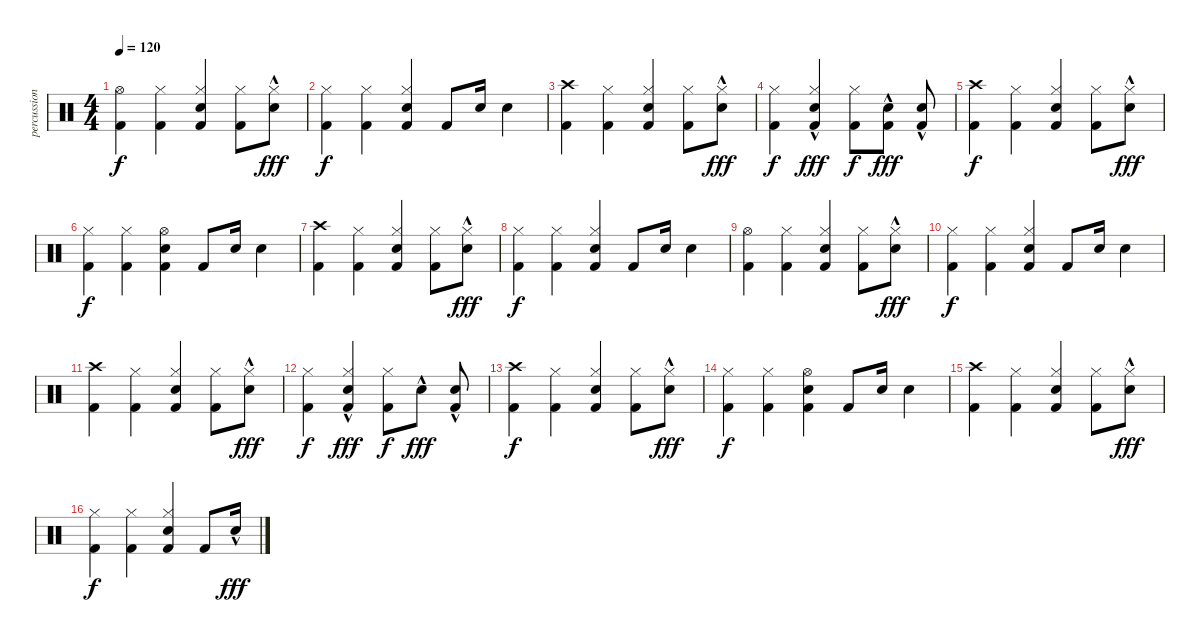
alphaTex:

\track ("percussion" "percussion") {instrument percussion}
\staff {score}
\articulation defaults
\ts (4 4)
\tempo 120
\clef neutral
\ks c
("Hi-Hat (open)" "Kick (hit) 2").4{dy f} ("Hi-Hat (closed)" "Kick (hit) 2").4 ("Hi-Hat (closed)" "Electric Snare (hit)" "Kick (hit) 2").4 ("Hi-Hat (closed)" "Kick (hit) 2").8 ("Hi-Hat (closed)" "Electric Snare (hit)"{hac}).8{dy fff} |
("Hi-Hat (closed)" "Kick (hit) 2").4{dy f} ("Hi-Hat (closed)" "Kick (hit) 2").4 ("Hi-Hat (closed)" "Electric Snare (hit)" "Kick (hit) 2").4 "Kick (hit) 2".8 "Electric Snare (hit)".16 "Electric Snare (hit)".4 |
("Crash high (hit)" "Kick (hit) 2").4 ("Hi-Hat (closed)" "Kick (hit) 2").4 ("Hi-Hat (closed)" "Electric Snare (hit)" "Kick (hit) 2").4 ("Hi-Hat (closed)" "Kick (hit) 2").8 ("Hi-Hat (closed)" "Electric Snare (hit)"{hac}).8{dy fff} |
("Hi-Hat (closed)" "Kick (hit) 2").4{dy f} ("Hi-Hat (closed)" "Electric Snare (hit)"{hac} "Kick (hit) 2").4{dy fff} ("Hi-Hat (closed)" "Kick (hit) 2").8{dy f} ("Electric Snare (hit)"{hac} "Kick (hit) 2").8{dy fff} ("Electric Snare (hit)"{hac} "Kick (hit) 2").8 |
("Crash high (hit)" "Kick (hit) 2").4{dy f} ("Hi-Hat (closed)" "Kick (hit) 2").4 ("Hi-Hat (closed)" "Electric Snare (hit)" "Kick (hit) 2").4 ("Hi-Hat (closed)" "Kick (hit) 2").8 ("Hi-Hat (closed)" "Electric Snare (hit)"{hac}).8{dy fff} |
("Hi-Hat (closed)" "Kick (hit) 2").4{dy f} ("Hi-Hat (closed)" "Kick (hit) 2").4 ("Hi-Hat (open)" "Electric Snare (hit)" "Kick (hit) 2").4 "Kick (hit) 2".8 "Electric Snare (hit)".16 "Electric Snare (hit)".4 |
("Crash high (hit)" "Kick (hit) 2").4 ("Hi-Hat (closed)" "Kick (hit) 2").4 ("Hi-Hat (closed)" "Electric Snare (hit)" "Kick (hit) 2").4 ("Hi-Hat (closed)" "Kick (hit) 2").8 ("Hi-Hat (closed)" "Electric Snare (hit)"{hac}).8{dy fff} |
("Hi-Hat (closed)" "Kick (hit) 2").4{dy f} ("Hi-Hat (closed)" "Kick (hit) 2").4 ("Hi-Hat (closed)" "Electric Snare (hit)" "Kick (hit) 2").4 "Kick (hit) 2".8 "Electric Snare (hit)".16 "Electric Snare (hit)".4 |
("Hi-Hat (open)" "Kick (hit) 2").4 ("Hi-Hat (closed)" "Kick (hit) 2").4 ("Hi-Hat (closed)" "Electric Snare (hit)" "Kick (hit) 2").4 ("Hi-Hat (closed)" "Kick (hit) 2").8 ("Hi-Hat (closed)" "Electric Snare (hit)"{hac}).8{dy fff} |
("Hi-Hat (closed)" "Kick (hit) 2").4{dy f} ("Hi-Hat (closed)" "Kick (hit) 2").4 ("Hi-Hat (closed)" "Electric Snare (hit)" "Kick (hit) 2").4 "Kick (hit) 2".8 "Electric Snare (hit)".16 "Electric Snare (hit)".4 |
("Crash high (hit)" "Kick (hit) 2").4 ("Hi-Hat (closed)" "Kick (hit) 2").4 ("Hi-Hat (closed)" "Electric Snare (hit)" "Kick (hit) 2").4 ("Hi-Hat (closed)" "Kick (hit) 2").8 ("Hi-Hat (closed)" "Electric Snare (hit)"{hac}).8{dy fff} |
("Hi-Hat (closed)" "Kick (hit) 2").4{dy f} ("Hi-Hat (closed)" "Electric Snare (hit)"{hac} "Kick (hit) 2").4{dy fff} ("Hi-Hat (closed)" "Kick (hit) 2").8{dy f} "Electric Snare (hit)"{hac}.8{dy fff} ("Electric Snare (hit)"{hac} "Kick (hit) 2").8 |
("Crash high (hit)" "Kick (hit) 2").4{dy f} ("Hi-Hat (closed)" "Kick (hit) 2").4 ("Hi-Hat (closed)" "Electric Snare (hit)" "Kick (hit) 2").4 ("Hi-Hat (closed)" "Kick (hit) 2").8 ("Hi-Hat (closed)" "Electric Snare (hit)"{hac}).8{dy fff} |
("Hi-Hat (closed)" "Kick (hit) 2").4{dy f} ("Hi-Hat (closed)" "Kick (hit) 2").4 ("Hi-Hat (open)" "Electric Snare (hit)" "Kick (hit) 2").4 "Kick (hit) 2".8 "Electric Snare (hit)".16 "Electric Snare (hit)".4 |
("Crash high (hit)" "Kick (hit) 2").4 ("Hi-Hat (closed)" "Kick (hit) 2").4 ("Hi-Hat (closed)" "Electric Snare (hit)" "Kick (hit) 2").4 ("Hi-Hat (closed)" "Kick (hit) 2").8 ("Hi-Hat (closed)" "Electric Snare (hit)"{hac}).8{dy fff} |
("Hi-Hat (closed)" "Kick (hit) 2").4{dy f} ("Hi-Hat (closed)" "Kick (hit) 2").4 ("Hi-Hat (closed)" "Electric Snare (hit)" "Kick (hit) 2").4 "Kick (hit) 2".8 "Electric Snare (hit)"{hac}.16{dy fff}
